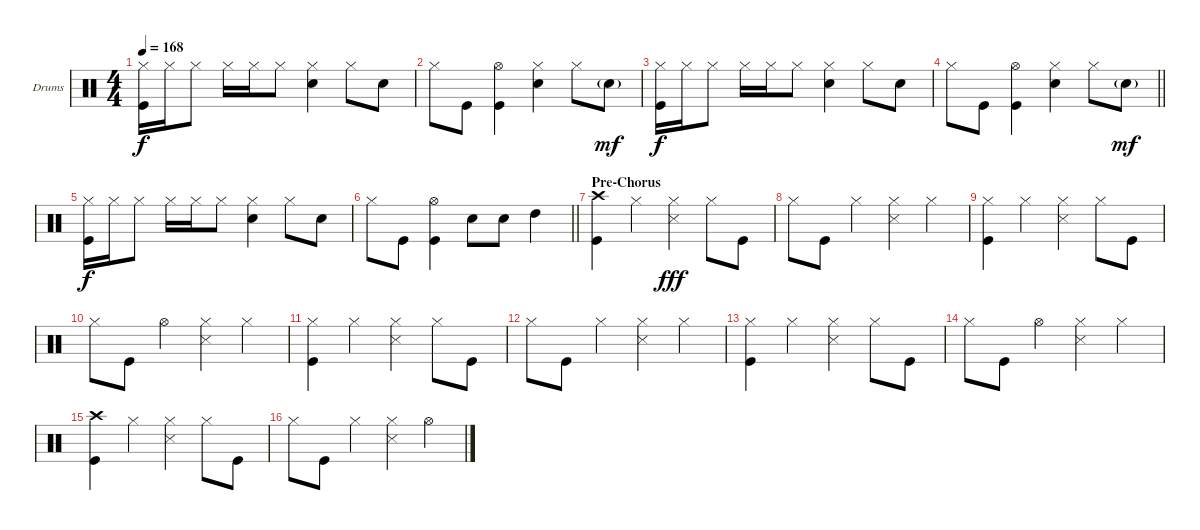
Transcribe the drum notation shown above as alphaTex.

\bracketExtendMode groupsimilarinstruments
\firstSystemTrackNameOrientation horizontal
\otherSystemsTrackNameOrientation horizontal
\track ("Drumkit" "Drums") {solo instrument percussion}
\staff {score}
\articulation defaults
\ts (4 4)
\tempo 168
\clef neutral
\ks c
("Hi-Hat (closed)" "Kick (hit)").16{dy f} "Hi-Hat (closed)".16 "Hi-Hat (closed)".8 "Hi-Hat (closed)".16 "Hi-Hat (closed)".16 "Hi-Hat (closed)".8 ("Hi-Hat (closed)" "Snare (hit) 2").4 "Hi-Hat (closed)".8 "Snare (hit) 2".8 |
"Hi-Hat (closed)".8 "Kick (hit)".8 ("Hi-Hat (open)" "Kick (hit)").4 ("Hi-Hat (closed)" "Snare (hit) 2").4 "Hi-Hat (closed)".8 "Snare (hit) 2"{g}.8{dy mf} |
("Hi-Hat (closed)" "Kick (hit)").16{dy f} "Hi-Hat (closed)".16 "Hi-Hat (closed)".8 "Hi-Hat (closed)".16 "Hi-Hat (closed)".16 "Hi-Hat (closed)".8 ("Hi-Hat (closed)" "Snare (hit) 2").4 "Hi-Hat (closed)".8 "Snare (hit) 2".8 |
\barLineRight lightlight "Hi-Hat (closed)".8 "Kick (hit)".8
("Hi-Hat (open)" "Kick (hit)").4 ("Hi-Hat (closed)" "Snare (hit) 2").4 "Hi-Hat (closed)".8 "Snare (hit) 2"{g}.8{dy mf} |
("Hi-Hat (closed)" "Kick (hit)").16{dy f} "Hi-Hat (closed)".16 "Hi-Hat (closed)".8 "Hi-Hat (closed)".16 "Hi-Hat (closed)".16 "Hi-Hat (closed)".8 ("Hi-Hat (closed)" "Snare (hit) 2").4 "Hi-Hat (closed)".8 "Snare (hit) 2".8 |
\barLineRight lightlight "Hi-Hat (closed)".8 "Kick (hit)".8
("Hi-Hat (open)" "Kick (hit)").4 "Snare (hit) 2".8 "Snare (hit) 2".8 "High Tom (hit)".4 |
\section ("" "Pre-Chorus")
("Crash high (hit)" "Kick (hit)").4 "Hi-Hat (closed)".4 ("Hi-Hat (closed)" "Snare (side stick) 3").4{dy fff} "Hi-Hat (closed)".8 "Kick (hit)".8 |
"Hi-Hat (closed)".8 "Kick (hit)".8 "Hi-Hat (closed)".4 ("Hi-Hat (closed)" "Snare (side stick) 3").4 "Hi-Hat (closed)".4 |
("Hi-Hat (closed)" "Kick (hit)").4 "Hi-Hat (closed)".4 ("Hi-Hat (closed)" "Snare (side stick) 3").4 "Hi-Hat (closed)".8 "Kick (hit)".8 |
"Hi-Hat (closed)".8 "Kick (hit)".8 "Hi-Hat (open)".4 ("Hi-Hat (closed)" "Snare (side stick) 3").4 "Hi-Hat (closed)".4 |
("Hi-Hat (closed)" "Kick (hit)").4 "Hi-Hat (closed)".4 ("Hi-Hat (closed)" "Snare (side stick) 3").4 "Hi-Hat (closed)".8 "Kick (hit)".8 |
"Hi-Hat (closed)".8 "Kick (hit)".8 "Hi-Hat (closed)".4 ("Hi-Hat (closed)" "Snare (side stick) 3").4 "Hi-Hat (closed)".4 |
("Hi-Hat (closed)" "Kick (hit)").4 "Hi-Hat (closed)".4 ("Hi-Hat (closed)" "Snare (side stick) 3").4 "Hi-Hat (closed)".8 "Kick (hit)".8 |
"Hi-Hat (closed)".8 "Kick (hit)".8 "Hi-Hat (open)".4 ("Hi-Hat (closed)" "Snare (side stick) 3").4 "Hi-Hat (closed)".4 |
("Crash high (hit)" "Kick (hit)").4 "Hi-Hat (closed)".4 ("Hi-Hat (closed)" "Snare (side stick) 3").4 "Hi-Hat (closed)".8 "Kick (hit)".8 |
"Hi-Hat (closed)".8 "Kick (hit)".8 "Hi-Hat (closed)".4 ("Hi-Hat (closed)" "Snare (side stick) 3").4 "Hi-Hat (open)".4
